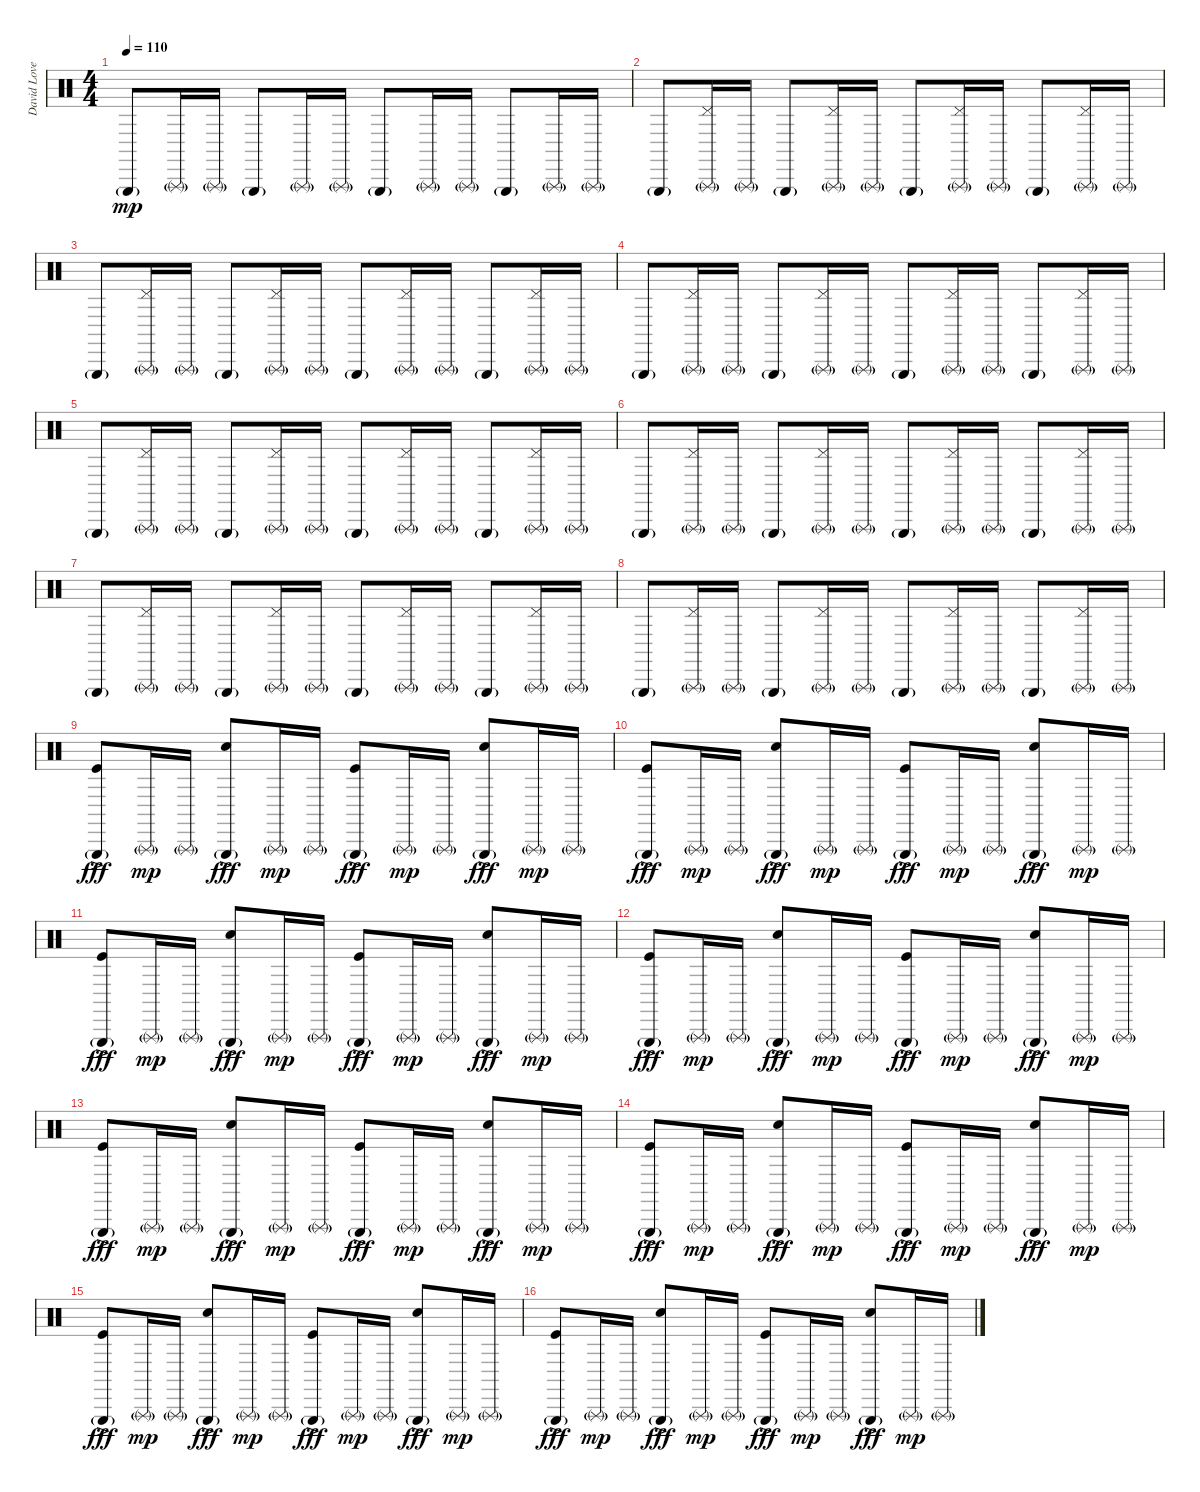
\track ("David Lovering" "David Love") {instrument percussion}
\staff {score}
\articulation defaults
\ts (4 4)
\tempo 110
\clef neutral
\ks c "Triangle (hit)"{g}.8{dy mp} "Triangle (rnute)"{g}.16 "Triangle (rnute)"{g}.16 "Triangle (hit)"{g}.8 "Triangle (rnute)"{g}.16 "Triangle (rnute)"{g}.16 "Triangle (hit)"{g}.8 "Triangle (rnute)"{g}.16 "Triangle (rnute)"{g}.16 "Triangle (hit)"{g}.8 "Triangle (rnute)"{g}.16 "Triangle (rnute)"{g}.16
|
"Triangle (hit)"{g}.8 ("Triangle (rnute)"{g} "Pedal Hi-Hat (hit)").16 "Triangle (rnute)"{g}.16 "Triangle (hit)"{g}.8 ("Triangle (rnute)"{g} "Pedal Hi-Hat (hit)").16 "Triangle (rnute)"{g}.16 "Triangle (hit)"{g}.8 ("Triangle (rnute)"{g} "Pedal Hi-Hat (hit)").16 "Triangle (rnute)"{g}.16 "Triangle (hit)"{g}.8 ("Triangle (rnute)"{g} "Pedal Hi-Hat (hit)").16 "Triangle (rnute)"{g}.16 |
"Triangle (hit)"{g}.8 ("Triangle (rnute)"{g} "Pedal Hi-Hat (hit)").16 "Triangle (rnute)"{g}.16 "Triangle (hit)"{g}.8 ("Triangle (rnute)"{g} "Pedal Hi-Hat (hit)").16 "Triangle (rnute)"{g}.16 "Triangle (hit)"{g}.8 ("Triangle (rnute)"{g} "Pedal Hi-Hat (hit)").16 "Triangle (rnute)"{g}.16 "Triangle (hit)"{g}.8 ("Triangle (rnute)"{g} "Pedal Hi-Hat (hit)").16 "Triangle (rnute)"{g}.16 |
"Triangle (hit)"{g}.8 ("Triangle (rnute)"{g} "Pedal Hi-Hat (hit)").16 "Triangle (rnute)"{g}.16 "Triangle (hit)"{g}.8 ("Triangle (rnute)"{g} "Pedal Hi-Hat (hit)").16 "Triangle (rnute)"{g}.16 "Triangle (hit)"{g}.8 ("Triangle (rnute)"{g} "Pedal Hi-Hat (hit)").16 "Triangle (rnute)"{g}.16 "Triangle (hit)"{g}.8 ("Triangle (rnute)"{g} "Pedal Hi-Hat (hit)").16 "Triangle (rnute)"{g}.16 |
"Triangle (hit)"{g}.8 ("Triangle (rnute)"{g} "Pedal Hi-Hat (hit)").16 "Triangle (rnute)"{g}.16 "Triangle (hit)"{g}.8 ("Triangle (rnute)"{g} "Pedal Hi-Hat (hit)").16 "Triangle (rnute)"{g}.16 "Triangle (hit)"{g}.8 ("Triangle (rnute)"{g} "Pedal Hi-Hat (hit)").16 "Triangle (rnute)"{g}.16 "Triangle (hit)"{g}.8 ("Triangle (rnute)"{g} "Pedal Hi-Hat (hit)").16 "Triangle (rnute)"{g}.16 |
"Triangle (hit)"{g}.8 ("Triangle (rnute)"{g} "Pedal Hi-Hat (hit)").16 "Triangle (rnute)"{g}.16 "Triangle (hit)"{g}.8 ("Triangle (rnute)"{g} "Pedal Hi-Hat (hit)").16 "Triangle (rnute)"{g}.16 "Triangle (hit)"{g}.8 ("Triangle (rnute)"{g} "Pedal Hi-Hat (hit)").16 "Triangle (rnute)"{g}.16 "Triangle (hit)"{g}.8 ("Triangle (rnute)"{g} "Pedal Hi-Hat (hit)").16 "Triangle (rnute)"{g}.16 |
"Triangle (hit)"{g}.8 ("Triangle (rnute)"{g} "Pedal Hi-Hat (hit)").16 "Triangle (rnute)"{g}.16 "Triangle (hit)"{g}.8 ("Triangle (rnute)"{g} "Pedal Hi-Hat (hit)").16 "Triangle (rnute)"{g}.16 "Triangle (hit)"{g}.8 ("Triangle (rnute)"{g} "Pedal Hi-Hat (hit)").16 "Triangle (rnute)"{g}.16 "Triangle (hit)"{g}.8 ("Triangle (rnute)"{g} "Pedal Hi-Hat (hit)").16 "Triangle (rnute)"{g}.16 |
"Triangle (hit)"{g}.8 ("Triangle (rnute)"{g} "Pedal Hi-Hat (hit)").16 "Triangle (rnute)"{g}.16 "Triangle (hit)"{g}.8 ("Triangle (rnute)"{g} "Pedal Hi-Hat (hit)").16 "Triangle (rnute)"{g}.16 "Triangle (hit)"{g}.8 ("Triangle (rnute)"{g} "Pedal Hi-Hat (hit)").16 "Triangle (rnute)"{g}.16 "Triangle (hit)"{g}.8 ("Triangle (rnute)"{g} "Pedal Hi-Hat (hit)").16 "Triangle (rnute)"{g}.16 |
("Triangle (hit)"{g} "Kick (hit)"{ac}).8{dy fff} "Triangle (rnute)"{g}.16{dy mp} "Triangle (rnute)"{g}.16 ("Triangle (hit)"{g} "Snare (hit) 2"{ac}).8{dy fff} "Triangle (rnute)"{g}.16{dy mp} "Triangle (rnute)"{g}.16 ("Triangle (hit)"{g} "Kick (hit)"{ac}).8{dy fff} "Triangle (rnute)"{g}.16{dy mp} "Triangle (rnute)"{g}.16 ("Triangle (hit)"{g} "Snare (hit) 2"{ac}).8{dy fff} "Triangle (rnute)"{g}.16{dy mp} "Triangle (rnute)"{g}.16 |
("Triangle (hit)"{g} "Kick (hit)"{ac}).8{dy fff} "Triangle (rnute)"{g}.16{dy mp} "Triangle (rnute)"{g}.16 ("Triangle (hit)"{g} "Snare (hit) 2"{ac}).8{dy fff} "Triangle (rnute)"{g}.16{dy mp} "Triangle (rnute)"{g}.16 ("Triangle (hit)"{g} "Kick (hit)"{ac}).8{dy fff} "Triangle (rnute)"{g}.16{dy mp} "Triangle (rnute)"{g}.16 ("Triangle (hit)"{g} "Snare (hit) 2"{ac}).8{dy fff} "Triangle (rnute)"{g}.16{dy mp} "Triangle (rnute)"{g}.16 |
("Triangle (hit)"{g} "Kick (hit)"{ac}).8{dy fff} "Triangle (rnute)"{g}.16{dy mp} "Triangle (rnute)"{g}.16 ("Triangle (hit)"{g} "Snare (hit) 2"{ac}).8{dy fff} "Triangle (rnute)"{g}.16{dy mp} "Triangle (rnute)"{g}.16 ("Triangle (hit)"{g} "Kick (hit)"{ac}).8{dy fff} "Triangle (rnute)"{g}.16{dy mp} "Triangle (rnute)"{g}.16 ("Triangle (hit)"{g} "Snare (hit) 2"{ac}).8{dy fff} "Triangle (rnute)"{g}.16{dy mp} "Triangle (rnute)"{g}.16 |
("Triangle (hit)"{g} "Kick (hit)"{ac}).8{dy fff} "Triangle (rnute)"{g}.16{dy mp} "Triangle (rnute)"{g}.16 ("Triangle (hit)"{g} "Snare (hit) 2"{ac}).8{dy fff} "Triangle (rnute)"{g}.16{dy mp} "Triangle (rnute)"{g}.16 ("Triangle (hit)"{g} "Kick (hit)"{ac}).8{dy fff} "Triangle (rnute)"{g}.16{dy mp} "Triangle (rnute)"{g}.16 ("Triangle (hit)"{g} "Snare (hit) 2"{ac}).8{dy fff} "Triangle (rnute)"{g}.16{dy mp} "Triangle (rnute)"{g}.16 |
("Triangle (hit)"{g} "Kick (hit)"{ac}).8{dy fff} "Triangle (rnute)"{g}.16{dy mp} "Triangle (rnute)"{g}.16 ("Triangle (hit)"{g} "Snare (hit) 2"{ac}).8{dy fff} "Triangle (rnute)"{g}.16{dy mp} "Triangle (rnute)"{g}.16 ("Triangle (hit)"{g} "Kick (hit)"{ac}).8{dy fff} "Triangle (rnute)"{g}.16{dy mp} "Triangle (rnute)"{g}.16 ("Triangle (hit)"{g} "Snare (hit) 2"{ac}).8{dy fff} "Triangle (rnute)"{g}.16{dy mp} "Triangle (rnute)"{g}.16 |
\section ("" "")
("Triangle (hit)"{g} "Kick (hit)"{ac}).8{dy fff} "Triangle (rnute)"{g}.16{dy mp} "Triangle (rnute)"{g}.16 ("Triangle (hit)"{g} "Snare (hit) 2"{ac}).8{dy fff} "Triangle (rnute)"{g}.16{dy mp} "Triangle (rnute)"{g}.16 ("Triangle (hit)"{g} "Kick (hit)"{ac}).8{dy fff} "Triangle (rnute)"{g}.16{dy mp} "Triangle (rnute)"{g}.16 ("Triangle (hit)"{g} "Snare (hit) 2"{ac}).8{dy fff} "Triangle (rnute)"{g}.16{dy mp} "Triangle (rnute)"{g}.16 |
("Triangle (hit)"{g} "Kick (hit)"{ac}).8{dy fff} "Triangle (rnute)"{g}.16{dy mp} "Triangle (rnute)"{g}.16 ("Triangle (hit)"{g} "Snare (hit) 2"{ac}).8{dy fff} "Triangle (rnute)"{g}.16{dy mp} "Triangle (rnute)"{g}.16 ("Triangle (hit)"{g} "Kick (hit)"{ac}).8{dy fff} "Triangle (rnute)"{g}.16{dy mp} "Triangle (rnute)"{g}.16 ("Triangle (hit)"{g} "Snare (hit) 2"{ac}).8{dy fff} "Triangle (rnute)"{g}.16{dy mp} "Triangle (rnute)"{g}.16 |
("Triangle (hit)"{g} "Kick (hit)"{ac}).8{dy fff} "Triangle (rnute)"{g}.16{dy mp} "Triangle (rnute)"{g}.16 ("Triangle (hit)"{g} "Snare (hit) 2"{ac}).8{dy fff} "Triangle (rnute)"{g}.16{dy mp} "Triangle (rnute)"{g}.16 ("Triangle (hit)"{g} "Kick (hit)"{ac}).8{dy fff} "Triangle (rnute)"{g}.16{dy mp} "Triangle (rnute)"{g}.16 ("Triangle (hit)"{g} "Snare (hit) 2"{ac}).8{dy fff} "Triangle (rnute)"{g}.16{dy mp} "Triangle (rnute)"{g}.16
